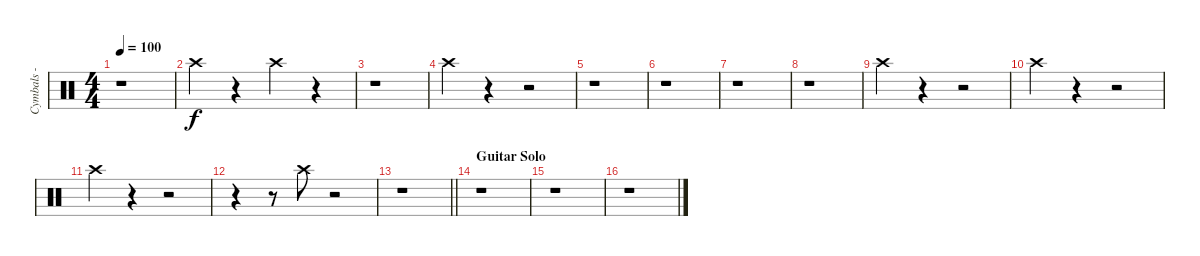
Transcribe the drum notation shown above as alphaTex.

\track ("Cymbals - crash - right" "Cymbals - ") {instrument percussion}
\staff {score}
\articulation defaults
\ts (4 4)
\tempo 100
\clef neutral
\ks c
r.1{dy f} |
"Crash high (hit)".4 r.4 "Crash high (hit)".4 r.4 |
r.1 |
"Crash high (hit)".4 r.4 r.2 |
r.1 |
r.1 |
r.1 |
r.1 |
"Crash high (hit)".4 r.4 r.2 |
"Crash high (hit)".4 r.4 r.2 |
"Crash high (hit)".4 r.4 r.2 |
r.4 r.8 "Crash high (hit)".8 r.2 |
\barLineRight lightlight
r.1 |
\section ("" "Guitar Solo")
r.1 |
r.1 |
r.1
